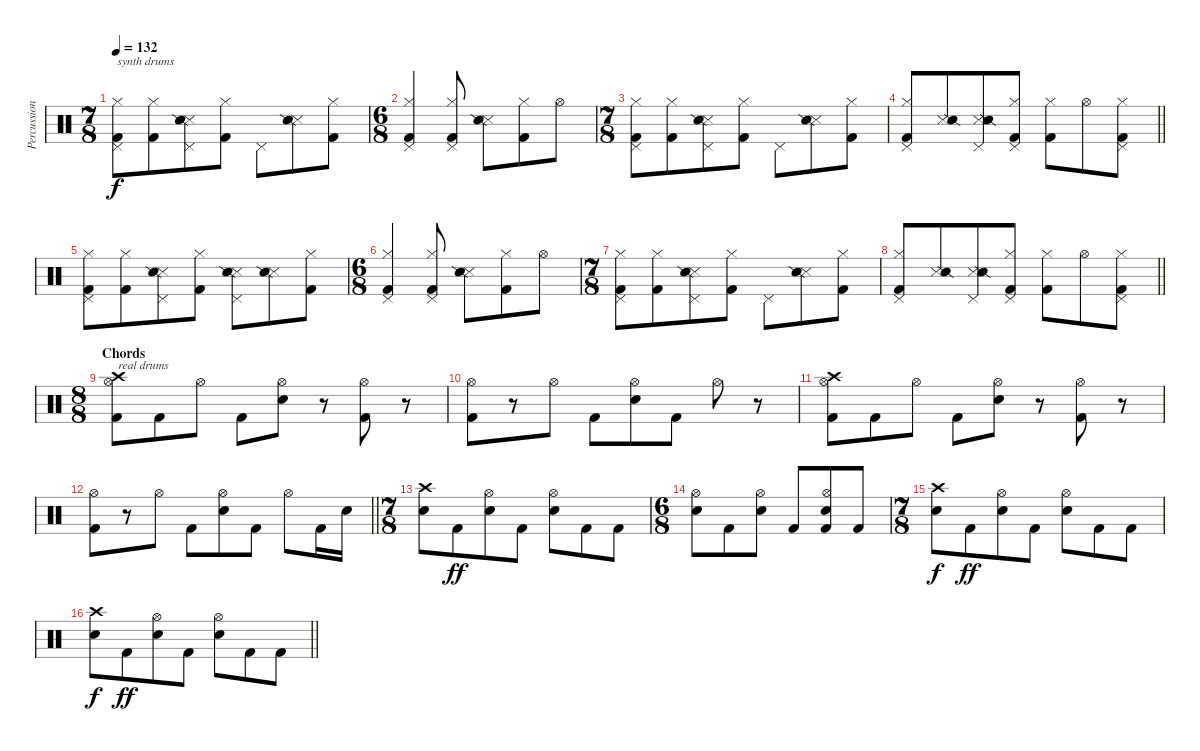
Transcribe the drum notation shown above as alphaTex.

\track ("Percussion" "Percussion") {instrument percussion}
\staff {score}
\articulation defaults
\ts (7 8)
\tempo 132
\clef neutral
\ks c
("Pedal Hi-Hat (hit)" "Hi-Hat (closed)" "Kick (hit) 2").8{txt "synth drums" dy f} ("Hi-Hat (closed)" "Kick (hit) 2").8 ("Pedal Hi-Hat (hit)" "Metronome (hit)" "Snare (side stick) 2").8 ("Hi-Hat (closed)" "Kick (hit) 2").8 "Pedal Hi-Hat (hit)".8 ("Metronome (hit)" "Snare (side stick) 2").8 ("Hi-Hat (closed)" "Kick (hit) 2").8 |
\ts (6 8)
("Pedal Hi-Hat (hit)" "Hi-Hat (closed)" "Kick (hit) 2").4 ("Pedal Hi-Hat (hit)" "Hi-Hat (closed)" "Kick (hit) 2").8 ("Metronome (hit)" "Snare (side stick) 2").8 ("Hi-Hat (closed)" "Kick (hit) 2").8 "Hi-Hat (open)".8 |
\ts (7 8)
("Pedal Hi-Hat (hit)" "Hi-Hat (closed)" "Kick (hit) 2").8 ("Hi-Hat (closed)" "Kick (hit) 2").8 ("Pedal Hi-Hat (hit)" "Metronome (hit)" "Snare (side stick) 2").8 ("Hi-Hat (closed)" "Kick (hit) 2").8 "Pedal Hi-Hat (hit)".8 ("Metronome (hit)" "Snare (side stick) 2").8 ("Hi-Hat (closed)" "Kick (hit) 2").8 |
\barLineRight lightlight
("Pedal Hi-Hat (hit)" "Hi-Hat (closed)" "Kick (hit) 2").8 ("Metronome (hit)" "Snare (side stick) 2").8 ("Pedal Hi-Hat (hit)" "Metronome (hit)" "Snare (side stick) 2").8 ("Pedal Hi-Hat (hit)" "Hi-Hat (closed)" "Kick (hit) 2").8 ("Hi-Hat (closed)" "Kick (hit) 2").8 "Hi-Hat (open)".8 ("Pedal Hi-Hat (hit)" "Hi-Hat (closed)" "Kick (hit) 2").8 |
("Pedal Hi-Hat (hit)" "Hi-Hat (closed)" "Kick (hit) 2").8 ("Hi-Hat (closed)" "Kick (hit) 2").8 ("Pedal Hi-Hat (hit)" "Metronome (hit)" "Snare (side stick) 2").8 ("Hi-Hat (closed)" "Kick (hit) 2").8 ("Pedal Hi-Hat (hit)" "Metronome (hit)" "Snare (side stick) 2").8 ("Metronome (hit)" "Snare (side stick) 2").8 ("Hi-Hat (closed)" "Kick (hit) 2").8 |
\ts (6 8)
("Pedal Hi-Hat (hit)" "Hi-Hat (closed)" "Kick (hit) 2").4 ("Pedal Hi-Hat (hit)" "Hi-Hat (closed)" "Kick (hit) 2").8 ("Metronome (hit)" "Snare (side stick) 2").8 ("Hi-Hat (closed)" "Kick (hit) 2").8 "Hi-Hat (open)".8 |
\ts (7 8)
("Pedal Hi-Hat (hit)" "Hi-Hat (closed)" "Kick (hit) 2").8 ("Hi-Hat (closed)" "Kick (hit) 2").8 ("Pedal Hi-Hat (hit)" "Metronome (hit)" "Snare (side stick) 2").8 ("Hi-Hat (closed)" "Kick (hit) 2").8 "Pedal Hi-Hat (hit)".8 ("Metronome (hit)" "Snare (side stick) 2").8 ("Hi-Hat (closed)" "Kick (hit) 2").8 |
\barLineRight lightlight
("Pedal Hi-Hat (hit)" "Hi-Hat (closed)" "Kick (hit) 2").8 ("Metronome (hit)" "Snare (side stick) 2").8 ("Pedal Hi-Hat (hit)" "Metronome (hit)" "Snare (side stick) 2").8 ("Pedal Hi-Hat (hit)" "Hi-Hat (closed)" "Kick (hit) 2").8 ("Hi-Hat (closed)" "Kick (hit) 2").8 "Hi-Hat (open)".8 ("Pedal Hi-Hat (hit)" "Hi-Hat (closed)" "Kick (hit) 2").8 |
\ts (8 8)
\section ("" "Chords")
("Hi-Hat (open)" "Crash high (hit)" "Kick (hit) 2").8{txt "real drums"} "Kick (hit) 2".8 "Hi-Hat (open)".8 "Kick (hit) 2".8 ("Hi-Hat (open)" "Electric Snare (hit)").8 r.8 ("Hi-Hat (open)" "Kick (hit) 2").8 r.8 |
("Hi-Hat (open)" "Kick (hit) 2").8 r.8 "Hi-Hat (open)".8 "Kick (hit) 2".8 ("Hi-Hat (open)" "Electric Snare (hit)").8 "Kick (hit) 2".8 "Hi-Hat (open)".8 r.8 |
("Hi-Hat (open)" "Crash high (hit)" "Kick (hit) 2").8 "Kick (hit) 2".8 "Hi-Hat (open)".8 "Kick (hit) 2".8 ("Hi-Hat (open)" "Electric Snare (hit)").8 r.8 ("Hi-Hat (open)" "Kick (hit) 2").8 r.8 |
\barLineRight lightlight
("Hi-Hat (open)" "Kick (hit) 2").8 r.8 "Hi-Hat (open)".8 "Kick (hit) 2".8 ("Hi-Hat (open)" "Electric Snare (hit)").8 "Kick (hit) 2".8 "Hi-Hat (open)".8 "Kick (hit) 2".16 "Electric Snare (hit)".16 |
\ts (7 8)
("Crash high (hit)" "Electric Snare (hit)").8 "Kick (hit) 2".8{dy ff} ("Hi-Hat (open)" "Electric Snare (hit)").8 "Kick (hit) 2".8 ("Hi-Hat (open)" "Electric Snare (hit)").8 "Kick (hit) 2".8 "Kick (hit) 2".8 |
\ts (6 8)
("Hi-Hat (open)" "Electric Snare (hit)").8 "Kick (hit) 2".8 ("Hi-Hat (open)" "Electric Snare (hit)").8 "Kick (hit) 2".8 ("Hi-Hat (open)" "Electric Snare (hit)" "Kick (hit) 2").8 "Kick (hit) 2".8 |
\ts (7 8)
("Crash high (hit)" "Electric Snare (hit)").8{dy f} "Kick (hit) 2".8{dy ff} ("Hi-Hat (open)" "Electric Snare (hit)").8 "Kick (hit) 2".8 ("Hi-Hat (open)" "Electric Snare (hit)").8 "Kick (hit) 2".8 "Kick (hit) 2".8 |
\barLineRight lightlight
("Crash high (hit)" "Electric Snare (hit)").8{dy f} "Kick (hit) 2".8{dy ff} ("Hi-Hat (open)" "Electric Snare (hit)").8 "Kick (hit) 2".8 ("Hi-Hat (open)" "Electric Snare (hit)").8 "Kick (hit) 2".8 "Kick (hit) 2".8
